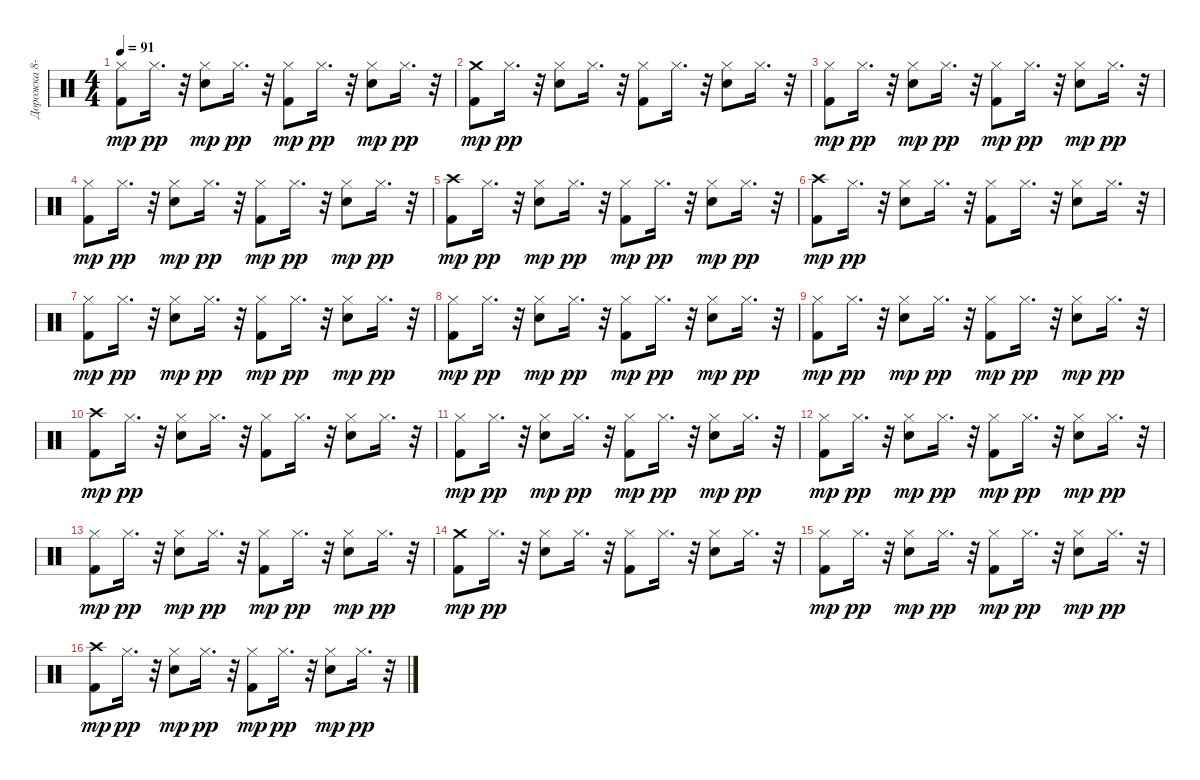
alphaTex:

\track ("Дорожка 8-9-10-11" "Дорожка 8-") {instrument percussion}
\staff {score}
\articulation defaults
\ts (4 4)
\tempo 91
\clef neutral
\ks c
("Hi-Hat (closed)" "Kick (hit) 2").8{dy mp} "Hi-Hat (closed)".16{d dy pp} r.32 ("Hi-Hat (closed)" "Electric Snare (hit)").8{dy mp} "Hi-Hat (closed)".16{d dy pp} r.32 ("Hi-Hat (closed)" "Kick (hit) 2").8{dy mp} "Hi-Hat (closed)".16{d dy pp} r.32 ("Hi-Hat (closed)" "Electric Snare (hit)").8{dy mp} "Hi-Hat (closed)".16{d dy pp} r.32 |
("Kick (hit) 2" "Crash medium (hit)").8{dy mp} "Hi-Hat (closed)".16{d dy pp} r.32 ("Electric Snare (hit)" "Hi-Hat (closed)").8 "Hi-Hat (closed)".16{d} r.32 ("Kick (hit) 2" "Hi-Hat (closed)").8 "Hi-Hat (closed)".16{d} r.32 ("Electric Snare (hit)" "Hi-Hat (closed)").8 "Hi-Hat (closed)".16{d} r.32 |
("Hi-Hat (closed)" "Kick (hit) 2").8{dy mp} "Hi-Hat (closed)".16{d dy pp} r.32 ("Hi-Hat (closed)" "Electric Snare (hit)").8{dy mp} "Hi-Hat (closed)".16{d dy pp} r.32 ("Hi-Hat (closed)" "Kick (hit) 2").8{dy mp} "Hi-Hat (closed)".16{d dy pp} r.32 ("Hi-Hat (closed)" "Electric Snare (hit)").8{dy mp} "Hi-Hat (closed)".16{d dy pp} r.32 |
("Hi-Hat (closed)" "Kick (hit) 2").8{dy mp} "Hi-Hat (closed)".16{d dy pp} r.32 ("Hi-Hat (closed)" "Electric Snare (hit)").8{dy mp} "Hi-Hat (closed)".16{d dy pp} r.32 ("Hi-Hat (closed)" "Kick (hit) 2").8{dy mp} "Hi-Hat (closed)".16{d dy pp} r.32 ("Hi-Hat (closed)" "Electric Snare (hit)").8{dy mp} "Hi-Hat (closed)".16{d dy pp} r.32 |
("Kick (hit) 2" "Crash high (hit)").8{dy mp} "Hi-Hat (closed)".16{d dy pp} r.32 ("Hi-Hat (closed)" "Electric Snare (hit)").8{dy mp} "Hi-Hat (closed)".16{d dy pp} r.32 ("Hi-Hat (closed)" "Kick (hit) 2").8{dy mp} "Hi-Hat (closed)".16{d dy pp} r.32 ("Hi-Hat (closed)" "Electric Snare (hit)").8{dy mp} "Hi-Hat (closed)".16{d dy pp} r.32 |
("Crash high (hit)" "Kick (hit) 2").8{dy mp} "Hi-Hat (closed)".16{d dy pp volume 14} r.32 ("Electric Snare (hit)" "Hi-Hat (closed)").8{volume 14} "Hi-Hat (closed)".16{d volume 14} r.32 ("Kick (hit) 2" "Hi-Hat (closed)").8{volume 13} "Hi-Hat (closed)".16{d volume 13} r.32 ("Electric Snare (hit)" "Hi-Hat (closed)").8{volume 13} "Hi-Hat (closed)".16{d} r.32 |
("Hi-Hat (closed)" "Kick (hit) 2").8{dy mp volume 13} "Hi-Hat (closed)".16{d dy pp volume 13} r.32 ("Hi-Hat (closed)" "Electric Snare (hit)").8{dy mp volume 13} "Hi-Hat (closed)".16{d dy pp volume 13} r.32 ("Hi-Hat (closed)" "Kick (hit) 2").8{dy mp volume 12} "Hi-Hat (closed)".16{d dy pp volume 12} r.32 ("Hi-Hat (closed)" "Electric Snare (hit)").8{dy mp} "Hi-Hat (closed)".16{d dy pp volume 12} r.32 |
("Hi-Hat (closed)" "Kick (hit) 2").8{dy mp volume 12} "Hi-Hat (closed)".16{d dy pp volume 12} r.32 ("Hi-Hat (closed)" "Electric Snare (hit)").8{dy mp volume 12} "Hi-Hat (closed)".16{d dy pp volume 12} r.32 ("Hi-Hat (closed)" "Kick (hit) 2").8{dy mp volume 12} "Hi-Hat (closed)".16{d dy pp volume 12} r.32 ("Hi-Hat (closed)" "Electric Snare (hit)").8{dy mp} "Hi-Hat (closed)".16{d dy pp volume 11} r.32 |
("Hi-Hat (closed)" "Kick (hit) 2").8{dy mp volume 11} "Hi-Hat (closed)".16{d dy pp volume 11} r.32 ("Hi-Hat (closed)" "Electric Snare (hit)").8{dy mp volume 11} "Hi-Hat (closed)".16{d dy pp volume 11} r.32 ("Hi-Hat (closed)" "Kick (hit) 2").8{dy mp volume 11} "Hi-Hat (closed)".16{d dy pp} r.32 ("Hi-Hat (closed)" "Electric Snare (hit)").8{dy mp volume 11} "Hi-Hat (closed)".16{d dy pp volume 10} r.32 |
("Kick (hit) 2" "Crash high (hit)").8{dy mp volume 10} "Hi-Hat (closed)".16{d dy pp volume 10} r.32 ("Electric Snare (hit)" "Hi-Hat (closed)").8{volume 10} "Hi-Hat (closed)".16{d volume 10} r.32 ("Kick (hit) 2" "Hi-Hat (closed)").8 "Hi-Hat (closed)".16{d volume 10} r.32 ("Electric Snare (hit)" "Hi-Hat (closed)").8{volume 10} "Hi-Hat (closed)".16{d volume 10} r.32 |
("Hi-Hat (closed)" "Kick (hit) 2").8{dy mp volume 10} "Hi-Hat (closed)".16{d dy pp volume 9} r.32 ("Hi-Hat (closed)" "Electric Snare (hit)").8{dy mp volume 9} "Hi-Hat (closed)".16{d dy pp} r.32 ("Hi-Hat (closed)" "Kick (hit) 2").8{dy mp volume 9} "Hi-Hat (closed)".16{d dy pp volume 9} r.32 ("Hi-Hat (closed)" "Electric Snare (hit)").8{dy mp volume 9} "Hi-Hat (closed)".16{d dy pp volume 9} r.32 |
("Hi-Hat (closed)" "Kick (hit) 2").8{dy mp volume 9} "Hi-Hat (closed)".16{d dy pp volume 8} r.32 ("Hi-Hat (closed)" "Electric Snare (hit)").8{dy mp} "Hi-Hat (closed)".16{d dy pp volume 8} r.32 ("Hi-Hat (closed)" "Kick (hit) 2").8{dy mp volume 8} "Hi-Hat (closed)".16{d dy pp volume 8} r.32 ("Hi-Hat (closed)" "Electric Snare (hit)").8{dy mp volume 8} "Hi-Hat (closed)".16{d dy pp volume 8} r.32 |
("Hi-Hat (closed)" "Kick (hit) 2").8{dy mp volume 8} "Hi-Hat (closed)".16{d dy pp} r.32 ("Hi-Hat (closed)" "Electric Snare (hit)").8{dy mp volume 8} "Hi-Hat (closed)".16{d dy pp volume 8} r.32 ("Hi-Hat (closed)" "Kick (hit) 2").8{dy mp volume 7} "Hi-Hat (closed)".16{d dy pp volume 7} r.32 ("Hi-Hat (closed)" "Electric Snare (hit)").8{dy mp volume 7} "Hi-Hat (closed)".16{d dy pp volume 7} r.32 |
("Kick (hit) 2" "Crash medium (hit)").8{dy mp} "Hi-Hat (closed)".16{d dy pp volume 7} r.32 ("Electric Snare (hit)" "Hi-Hat (closed)").8{volume 7} "Hi-Hat (closed)".16{d volume 7} r.32 ("Kick (hit) 2" "Hi-Hat (closed)").8{volume 6} "Hi-Hat (closed)".16{d volume 6} r.32 ("Electric Snare (hit)" "Hi-Hat (closed)").8{volume 6} "Hi-Hat (closed)".16{d} r.32 |
("Hi-Hat (closed)" "Kick (hit) 2").8{dy mp volume 6} "Hi-Hat (closed)".16{d dy pp volume 6} r.32 ("Hi-Hat (closed)" "Electric Snare (hit)").8{dy mp volume 6} "Hi-Hat (closed)".16{d dy pp volume 6} r.32 ("Hi-Hat (closed)" "Kick (hit) 2").8{dy mp volume 6} "Hi-Hat (closed)".16{d dy pp volume 6} r.32 ("Hi-Hat (closed)" "Electric Snare (hit)").8{dy mp} "Hi-Hat (closed)".16{d dy pp volume 5} r.32 |
("Kick (hit) 2" "Crash high (hit)").8{dy mp volume 5} "Hi-Hat (closed)".16{d dy pp volume 5} r.32 ("Hi-Hat (closed)" "Electric Snare (hit)").8{dy mp volume 5} "Hi-Hat (closed)".16{d dy pp volume 5} r.32 ("Hi-Hat (closed)" "Kick (hit) 2").8{dy mp volume 5} "Hi-Hat (closed)".16{d dy pp volume 5} r.32 ("Hi-Hat (closed)" "Electric Snare (hit)").8{dy mp} "Hi-Hat (closed)".16{d dy pp volume 4} r.32
